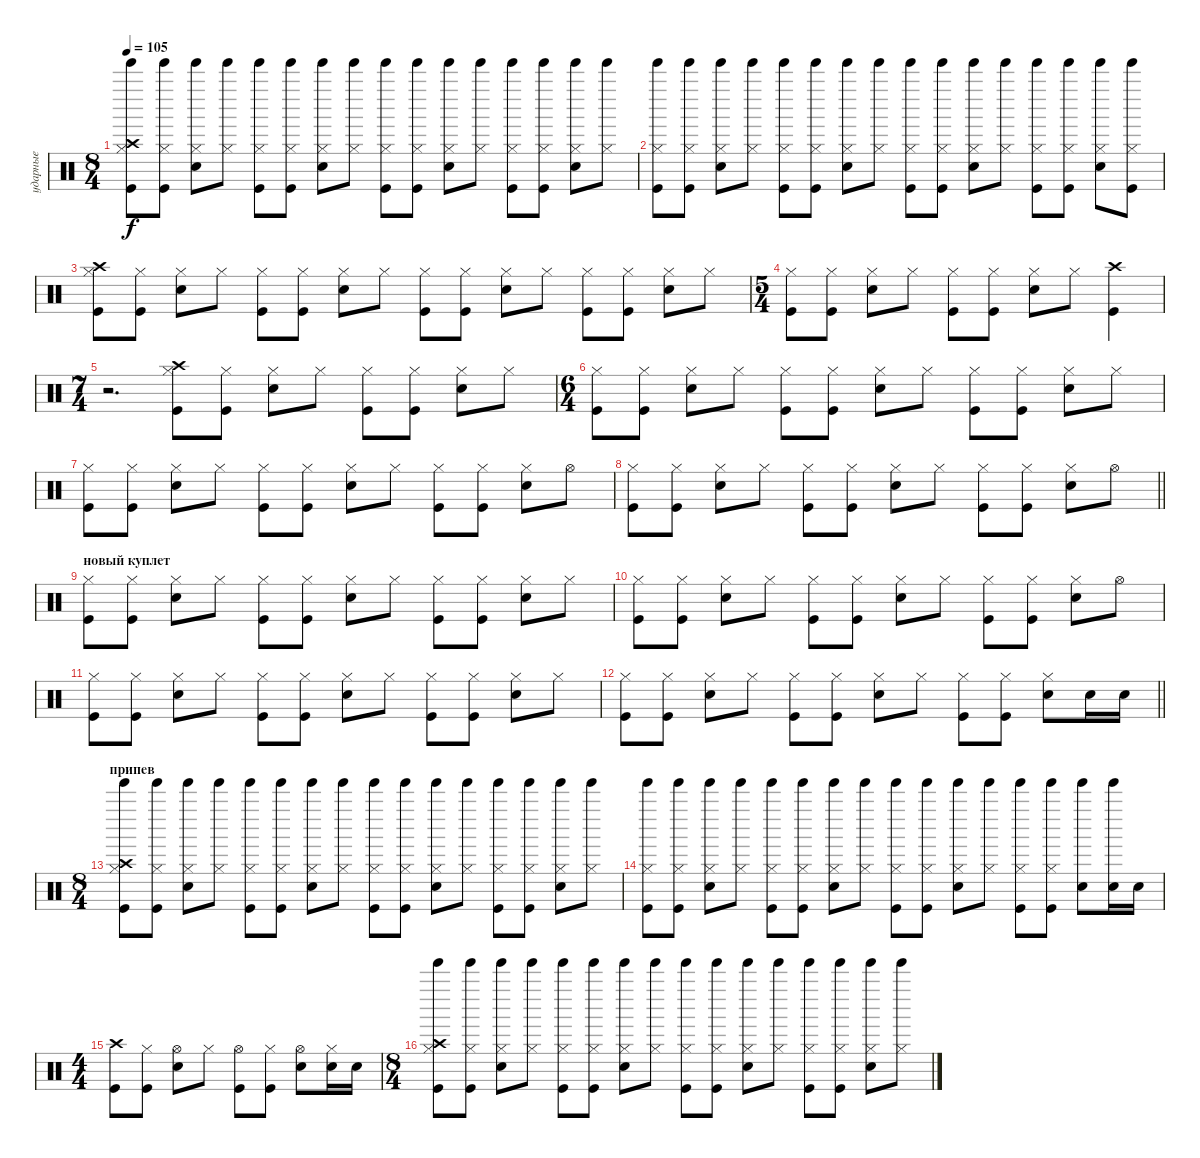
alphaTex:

\track ("ударные" "ударные") {instrument percussion}
\staff {score}
\articulation defaults
\ts (8 4)
\tempo 105
\clef neutral
\ks c
("Hi-Hat (closed)" "Kick (hit)" "Crash high (hit)" "Tinkle Bell (hit)").8{dy f} ("Hi-Hat (closed)" "Kick (hit)" "Tinkle Bell (hit)").8 ("Hi-Hat (closed)" "Snare (hit) 2" "Tinkle Bell (hit)").8 ("Hi-Hat (closed)" "Tinkle Bell (hit)").8 ("Hi-Hat (closed)" "Kick (hit)" "Tinkle Bell (hit)").8 ("Hi-Hat (closed)" "Kick (hit)" "Tinkle Bell (hit)").8 ("Hi-Hat (closed)" "Snare (hit) 2" "Tinkle Bell (hit)").8 ("Hi-Hat (closed)" "Tinkle Bell (hit)").8 ("Hi-Hat (closed)" "Kick (hit)" "Tinkle Bell (hit)").8 ("Hi-Hat (closed)" "Kick (hit)" "Tinkle Bell (hit)").8 ("Hi-Hat (closed)" "Snare (hit) 2" "Tinkle Bell (hit)").8 ("Hi-Hat (closed)" "Tinkle Bell (hit)").8 ("Hi-Hat (closed)" "Kick (hit)" "Tinkle Bell (hit)").8 ("Hi-Hat (closed)" "Kick (hit)" "Tinkle Bell (hit)").8 ("Hi-Hat (closed)" "Snare (hit) 2" "Tinkle Bell (hit)").8 ("Hi-Hat (closed)" "Tinkle Bell (hit)").8 |
("Hi-Hat (closed)" "Kick (hit)" "Tinkle Bell (hit)").8 ("Hi-Hat (closed)" "Kick (hit)" "Tinkle Bell (hit)").8 ("Hi-Hat (closed)" "Snare (hit) 2" "Tinkle Bell (hit)").8 ("Hi-Hat (closed)" "Tinkle Bell (hit)").8 ("Hi-Hat (closed)" "Kick (hit)" "Tinkle Bell (hit)").8 ("Hi-Hat (closed)" "Kick (hit)" "Tinkle Bell (hit)").8 ("Hi-Hat (closed)" "Snare (hit) 2" "Tinkle Bell (hit)").8 ("Hi-Hat (closed)" "Tinkle Bell (hit)").8 ("Hi-Hat (closed)" "Kick (hit)" "Tinkle Bell (hit)").8 ("Hi-Hat (closed)" "Kick (hit)" "Tinkle Bell (hit)").8 ("Hi-Hat (closed)" "Snare (hit) 2" "Tinkle Bell (hit)").8 ("Hi-Hat (closed)" "Tinkle Bell (hit)").8 ("Hi-Hat (closed)" "Kick (hit)" "Tinkle Bell (hit)").8 ("Hi-Hat (closed)" "Kick (hit)" "Tinkle Bell (hit)").8 ("Hi-Hat (closed)" "Snare (hit) 2" "Tinkle Bell (hit)").8 ("Hi-Hat (closed)" "Kick (hit)" "Tinkle Bell (hit)").8 |
("Hi-Hat (closed)" "Kick (hit)" "Crash high (hit)").8 ("Hi-Hat (closed)" "Kick (hit)").8 ("Hi-Hat (closed)" "Snare (hit) 2").8 "Hi-Hat (closed)".8 ("Hi-Hat (closed)" "Kick (hit)").8 ("Hi-Hat (closed)" "Kick (hit)").8 ("Hi-Hat (closed)" "Snare (hit) 2").8 "Hi-Hat (closed)".8 ("Hi-Hat (closed)" "Kick (hit)").8 ("Hi-Hat (closed)" "Kick (hit)").8 ("Hi-Hat (closed)" "Snare (hit) 2").8 "Hi-Hat (closed)".8 ("Hi-Hat (closed)" "Kick (hit)").8 ("Hi-Hat (closed)" "Kick (hit)").8 ("Hi-Hat (closed)" "Snare (hit) 2").8 "Hi-Hat (closed)".8 |
\ts (5 4)
("Hi-Hat (closed)" "Kick (hit)").8 ("Hi-Hat (closed)" "Kick (hit)").8 ("Hi-Hat (closed)" "Snare (hit) 2").8 "Hi-Hat (closed)".8 ("Hi-Hat (closed)" "Kick (hit)").8 ("Hi-Hat (closed)" "Kick (hit)").8 ("Hi-Hat (closed)" "Snare (hit) 2").8 "Hi-Hat (closed)".8 ("Kick (hit)" "Crash high (hit)").4 |
\ts (7 4)
r.2{d} ("Hi-Hat (closed)" "Kick (hit)" "Crash high (hit)").8 ("Hi-Hat (closed)" "Kick (hit)").8 ("Hi-Hat (closed)" "Snare (hit) 2").8 "Hi-Hat (closed)".8 ("Hi-Hat (closed)" "Kick (hit)").8 ("Hi-Hat (closed)" "Kick (hit)").8 ("Hi-Hat (closed)" "Snare (hit) 2").8 "Hi-Hat (closed)".8 |
\ts (6 4)
("Hi-Hat (closed)" "Kick (hit)").8 ("Hi-Hat (closed)" "Kick (hit)").8 ("Hi-Hat (closed)" "Snare (hit) 2").8 "Hi-Hat (closed)".8 ("Hi-Hat (closed)" "Kick (hit)").8 ("Hi-Hat (closed)" "Kick (hit)").8 ("Hi-Hat (closed)" "Snare (hit) 2").8 "Hi-Hat (closed)".8 ("Hi-Hat (closed)" "Kick (hit)").8 ("Hi-Hat (closed)" "Kick (hit)").8 ("Hi-Hat (closed)" "Snare (hit) 2").8 "Hi-Hat (closed)".8 |
("Hi-Hat (closed)" "Kick (hit)").8 ("Hi-Hat (closed)" "Kick (hit)").8 ("Hi-Hat (closed)" "Snare (hit) 2").8 "Hi-Hat (closed)".8 ("Hi-Hat (closed)" "Kick (hit)").8 ("Hi-Hat (closed)" "Kick (hit)").8 ("Hi-Hat (closed)" "Snare (hit) 2").8 "Hi-Hat (closed)".8 ("Hi-Hat (closed)" "Kick (hit)").8 ("Hi-Hat (closed)" "Kick (hit)").8 ("Hi-Hat (closed)" "Snare (hit) 2").8 "Hi-Hat (open)".8 |
\barLineRight lightlight
("Hi-Hat (closed)" "Kick (hit)").8 ("Hi-Hat (closed)" "Kick (hit)").8 ("Hi-Hat (closed)" "Snare (hit) 2").8 "Hi-Hat (closed)".8 ("Hi-Hat (closed)" "Kick (hit)").8 ("Hi-Hat (closed)" "Kick (hit)").8 ("Hi-Hat (closed)" "Snare (hit) 2").8 "Hi-Hat (closed)".8 ("Hi-Hat (closed)" "Kick (hit)").8 ("Hi-Hat (closed)" "Kick (hit)").8 ("Hi-Hat (closed)" "Snare (hit) 2").8 "Hi-Hat (open)".8 |
\section ("" "новый куплет")
("Hi-Hat (closed)" "Kick (hit)").8 ("Hi-Hat (closed)" "Kick (hit)").8 ("Hi-Hat (closed)" "Snare (hit) 2").8 "Hi-Hat (closed)".8 ("Hi-Hat (closed)" "Kick (hit)").8 ("Hi-Hat (closed)" "Kick (hit)").8 ("Hi-Hat (closed)" "Snare (hit) 2").8 "Hi-Hat (closed)".8 ("Hi-Hat (closed)" "Kick (hit)").8 ("Hi-Hat (closed)" "Kick (hit)").8 ("Hi-Hat (closed)" "Snare (hit) 2").8 "Hi-Hat (closed)".8 |
("Hi-Hat (closed)" "Kick (hit)").8 ("Hi-Hat (closed)" "Kick (hit)").8 ("Hi-Hat (closed)" "Snare (hit) 2").8 "Hi-Hat (closed)".8 ("Hi-Hat (closed)" "Kick (hit)").8 ("Hi-Hat (closed)" "Kick (hit)").8 ("Hi-Hat (closed)" "Snare (hit) 2").8 "Hi-Hat (closed)".8 ("Hi-Hat (closed)" "Kick (hit)").8 ("Hi-Hat (closed)" "Kick (hit)").8 ("Hi-Hat (closed)" "Snare (hit) 2").8 "Hi-Hat (open)".8 |
("Hi-Hat (closed)" "Kick (hit)").8 ("Hi-Hat (closed)" "Kick (hit)").8 ("Hi-Hat (closed)" "Snare (hit) 2").8 "Hi-Hat (closed)".8 ("Hi-Hat (closed)" "Kick (hit)").8 ("Hi-Hat (closed)" "Kick (hit)").8 ("Hi-Hat (closed)" "Snare (hit) 2").8 "Hi-Hat (closed)".8 ("Hi-Hat (closed)" "Kick (hit)").8 ("Hi-Hat (closed)" "Kick (hit)").8 ("Hi-Hat (closed)" "Snare (hit) 2").8 "Hi-Hat (closed)".8 |
\barLineRight lightlight
("Hi-Hat (closed)" "Kick (hit)").8 ("Hi-Hat (closed)" "Kick (hit)").8 ("Hi-Hat (closed)" "Snare (hit) 2").8 "Hi-Hat (closed)".8 ("Hi-Hat (closed)" "Kick (hit)").8 ("Hi-Hat (closed)" "Kick (hit)").8 ("Hi-Hat (closed)" "Snare (hit) 2").8 "Hi-Hat (closed)".8 ("Hi-Hat (closed)" "Kick (hit)").8 ("Hi-Hat (closed)" "Kick (hit)").8 ("Hi-Hat (closed)" "Snare (hit) 2").8 "Snare (hit) 2".16 "Snare (hit) 2".16 |
\ts (8 4)
\section ("" "припев")
("Hi-Hat (closed)" "Kick (hit)" "Crash high (hit)" "Tinkle Bell (hit)").8 ("Hi-Hat (closed)" "Kick (hit)" "Tinkle Bell (hit)").8 ("Hi-Hat (closed)" "Snare (hit) 2" "Tinkle Bell (hit)").8 ("Hi-Hat (closed)" "Tinkle Bell (hit)").8 ("Hi-Hat (closed)" "Kick (hit)" "Tinkle Bell (hit)").8 ("Hi-Hat (closed)" "Kick (hit)" "Tinkle Bell (hit)").8 ("Hi-Hat (closed)" "Snare (hit) 2" "Tinkle Bell (hit)").8 ("Hi-Hat (closed)" "Tinkle Bell (hit)").8 ("Hi-Hat (closed)" "Kick (hit)" "Tinkle Bell (hit)").8 ("Hi-Hat (closed)" "Kick (hit)" "Tinkle Bell (hit)").8 ("Hi-Hat (closed)" "Snare (hit) 2" "Tinkle Bell (hit)").8 ("Hi-Hat (closed)" "Tinkle Bell (hit)").8 ("Hi-Hat (closed)" "Kick (hit)" "Tinkle Bell (hit)").8 ("Hi-Hat (closed)" "Kick (hit)" "Tinkle Bell (hit)").8 ("Hi-Hat (closed)" "Snare (hit) 2" "Tinkle Bell (hit)").8 ("Hi-Hat (closed)" "Tinkle Bell (hit)").8 |
("Hi-Hat (closed)" "Kick (hit)" "Tinkle Bell (hit)").8 ("Hi-Hat (closed)" "Kick (hit)" "Tinkle Bell (hit)").8 ("Hi-Hat (closed)" "Snare (hit) 2" "Tinkle Bell (hit)").8 ("Hi-Hat (closed)" "Tinkle Bell (hit)").8 ("Hi-Hat (closed)" "Kick (hit)" "Tinkle Bell (hit)").8 ("Hi-Hat (closed)" "Kick (hit)" "Tinkle Bell (hit)").8 ("Hi-Hat (closed)" "Snare (hit) 2" "Tinkle Bell (hit)").8 ("Hi-Hat (closed)" "Tinkle Bell (hit)").8 ("Hi-Hat (closed)" "Kick (hit)" "Tinkle Bell (hit)").8 ("Hi-Hat (closed)" "Kick (hit)" "Tinkle Bell (hit)").8 ("Hi-Hat (closed)" "Snare (hit) 2" "Tinkle Bell (hit)").8 ("Hi-Hat (closed)" "Tinkle Bell (hit)").8 ("Hi-Hat (closed)" "Kick (hit)" "Tinkle Bell (hit)").8 ("Hi-Hat (closed)" "Kick (hit)" "Tinkle Bell (hit)").8 ("Snare (hit) 2" "Tinkle Bell (hit)").8 ("Snare (hit) 2" "Tinkle Bell (hit)").16 "Snare (hit) 2".16 |
\ts (4 4)
("Crash high (hit)" "Kick (hit)").8 ("Hi-Hat (closed)" "Kick (hit)").8 ("Hi-Hat (open)" "Snare (hit) 2").8 "Hi-Hat (closed)".8 ("Hi-Hat (open)" "Kick (hit)").8 ("Hi-Hat (closed)" "Kick (hit)").8 ("Hi-Hat (open)" "Snare (hit) 2").8 ("Hi-Hat (closed)" "Snare (hit) 2").16 "Snare (hit) 2".16 |
\ts (8 4)
("Hi-Hat (closed)" "Kick (hit)" "Crash high (hit)" "Tinkle Bell (hit)").8 ("Hi-Hat (closed)" "Kick (hit)" "Tinkle Bell (hit)").8 ("Hi-Hat (closed)" "Snare (hit) 2" "Tinkle Bell (hit)").8 ("Hi-Hat (closed)" "Tinkle Bell (hit)").8 ("Hi-Hat (closed)" "Kick (hit)" "Tinkle Bell (hit)").8 ("Hi-Hat (closed)" "Kick (hit)" "Tinkle Bell (hit)").8 ("Hi-Hat (closed)" "Snare (hit) 2" "Tinkle Bell (hit)").8 ("Hi-Hat (closed)" "Tinkle Bell (hit)").8 ("Hi-Hat (closed)" "Kick (hit)" "Tinkle Bell (hit)").8 ("Hi-Hat (closed)" "Kick (hit)" "Tinkle Bell (hit)").8 ("Hi-Hat (closed)" "Snare (hit) 2" "Tinkle Bell (hit)").8 ("Hi-Hat (closed)" "Tinkle Bell (hit)").8 ("Hi-Hat (closed)" "Kick (hit)" "Tinkle Bell (hit)").8 ("Hi-Hat (closed)" "Kick (hit)" "Tinkle Bell (hit)").8 ("Hi-Hat (closed)" "Snare (hit) 2" "Tinkle Bell (hit)").8 ("Hi-Hat (closed)" "Tinkle Bell (hit)").8
